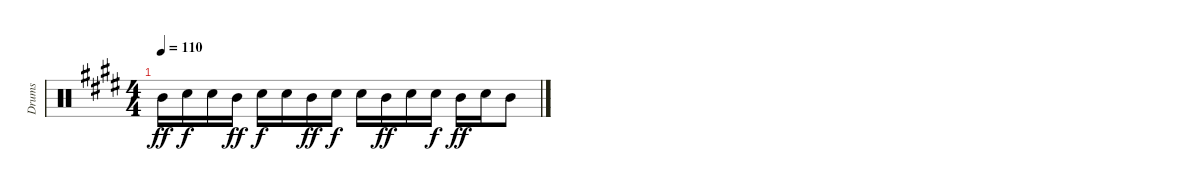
\track ("Drums" "Drums") {instrument percussion}
\staff {score}
\articulation defaults
\ts (4 4)
\tempo 110
\clef neutral
\ks c#minor "Mid Tom (hit)".16{dy ff volume 0} "Electric Snare (hit)".16{dy f} "Electric Snare (hit)".16 "Mid Tom (hit)".16{dy ff} "Electric Snare (hit)".16{dy f} "Electric Snare (hit)".16 "Mid Tom (hit)".16{dy ff} "Electric Snare (hit)".16{dy f} "Electric Snare (hit)".16 "Mid Tom (hit)".16{dy ff} "Electric Snare (hit)".16 "Electric Snare (hit)".16{dy f} "Mid Tom (hit)".16{dy ff} "Electric Snare (hit)".16 "Mid Tom (hit)".8
